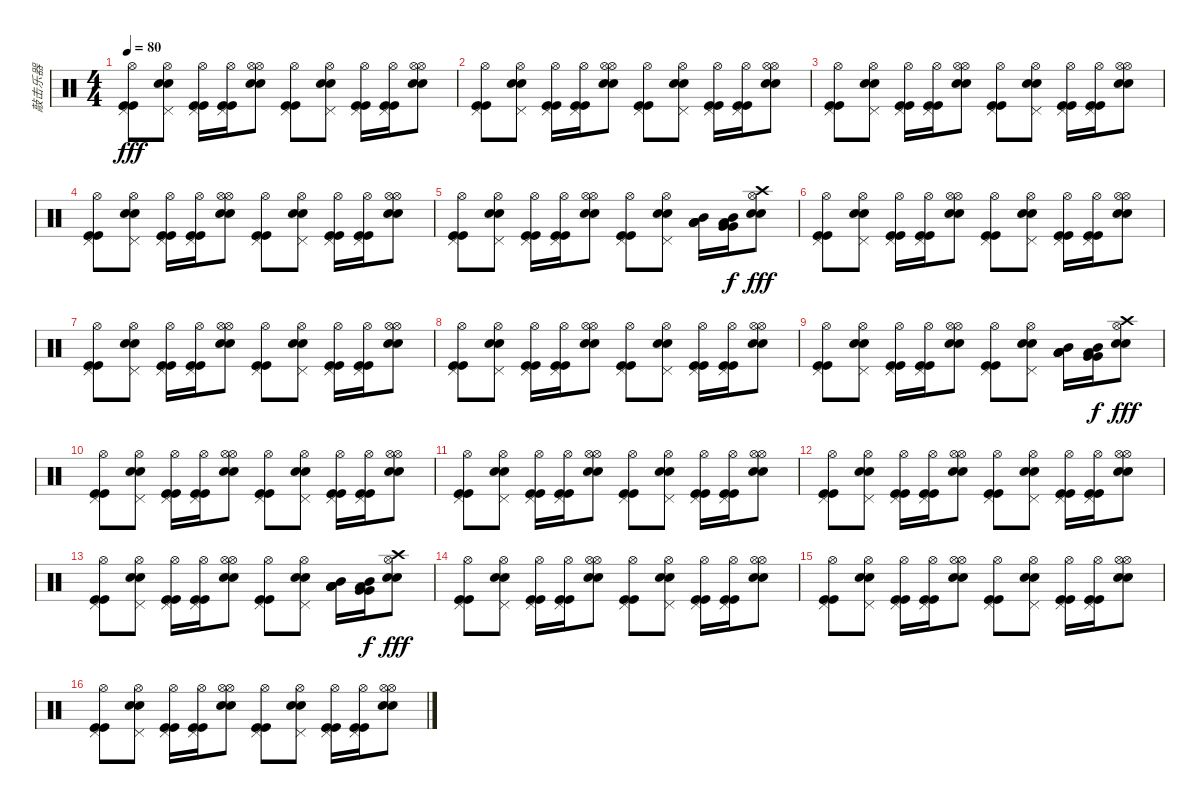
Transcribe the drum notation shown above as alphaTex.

\track ("敲击乐器" "敲击乐器") {instrument percussion}
\staff {score}
\articulation defaults
\ts (4 4)
\tempo 80
\clef neutral
\ks c
("Kick (hit)" "Kick (hit)" "Pedal Hi-Hat (hit)" "Hi-Hat (open)").8{dy fff} ("Electric Snare (hit)" "Electric Snare (hit)" "Pedal Hi-Hat (hit)" "Hi-Hat (open)").8 ("Kick (hit)" "Kick (hit)" "Pedal Hi-Hat (hit)" "Hi-Hat (open)").16 ("Kick (hit)" "Kick (hit)" "Pedal Hi-Hat (hit)" "Hi-Hat (open)").16 ("Electric Snare (hit)" "Electric Snare (hit)" "Hi-Hat (open)" "Hi-Hat (open)").8 ("Kick (hit)" "Kick (hit)" "Pedal Hi-Hat (hit)" "Hi-Hat (open)").8 ("Electric Snare (hit)" "Electric Snare (hit)" "Pedal Hi-Hat (hit)" "Hi-Hat (open)").8 ("Kick (hit)" "Kick (hit)" "Pedal Hi-Hat (hit)" "Hi-Hat (open)").16 ("Kick (hit)" "Kick (hit)" "Pedal Hi-Hat (hit)" "Hi-Hat (open)").16 ("Electric Snare (hit)" "Electric Snare (hit)" "Hi-Hat (open)" "Hi-Hat (open)").8 |
("Kick (hit)" "Kick (hit)" "Pedal Hi-Hat (hit)" "Hi-Hat (open)").8 ("Electric Snare (hit)" "Electric Snare (hit)" "Pedal Hi-Hat (hit)" "Hi-Hat (open)").8 ("Kick (hit)" "Kick (hit)" "Pedal Hi-Hat (hit)" "Hi-Hat (open)").16 ("Kick (hit)" "Kick (hit)" "Pedal Hi-Hat (hit)" "Hi-Hat (open)").16 ("Electric Snare (hit)" "Electric Snare (hit)" "Hi-Hat (open)" "Hi-Hat (open)").8 ("Kick (hit)" "Kick (hit)" "Pedal Hi-Hat (hit)" "Hi-Hat (open)").8 ("Electric Snare (hit)" "Electric Snare (hit)" "Pedal Hi-Hat (hit)" "Hi-Hat (open)").8 ("Kick (hit)" "Kick (hit)" "Pedal Hi-Hat (hit)" "Hi-Hat (open)").16 ("Kick (hit)" "Kick (hit)" "Pedal Hi-Hat (hit)" "Hi-Hat (open)").16 ("Electric Snare (hit)" "Electric Snare (hit)" "Hi-Hat (open)" "Hi-Hat (open)").8 |
("Kick (hit)" "Kick (hit)" "Pedal Hi-Hat (hit)" "Hi-Hat (open)").8 ("Electric Snare (hit)" "Electric Snare (hit)" "Pedal Hi-Hat (hit)" "Hi-Hat (open)").8 ("Kick (hit)" "Kick (hit)" "Pedal Hi-Hat (hit)" "Hi-Hat (open)").16 ("Kick (hit)" "Kick (hit)" "Pedal Hi-Hat (hit)" "Hi-Hat (open)").16 ("Electric Snare (hit)" "Electric Snare (hit)" "Hi-Hat (open)" "Hi-Hat (open)").8 ("Kick (hit)" "Kick (hit)" "Pedal Hi-Hat (hit)" "Hi-Hat (open)").8 ("Electric Snare (hit)" "Electric Snare (hit)" "Pedal Hi-Hat (hit)" "Hi-Hat (open)").8 ("Kick (hit)" "Kick (hit)" "Pedal Hi-Hat (hit)" "Hi-Hat (open)").16 ("Kick (hit)" "Kick (hit)" "Pedal Hi-Hat (hit)" "Hi-Hat (open)").16 ("Electric Snare (hit)" "Electric Snare (hit)" "Hi-Hat (open)" "Hi-Hat (open)").8 |
("Kick (hit)" "Kick (hit)" "Pedal Hi-Hat (hit)" "Hi-Hat (open)").8 ("Electric Snare (hit)" "Electric Snare (hit)" "Pedal Hi-Hat (hit)" "Hi-Hat (open)").8 ("Kick (hit)" "Kick (hit)" "Pedal Hi-Hat (hit)" "Hi-Hat (open)").16 ("Kick (hit)" "Kick (hit)" "Pedal Hi-Hat (hit)" "Hi-Hat (open)").16 ("Electric Snare (hit)" "Electric Snare (hit)" "Hi-Hat (open)" "Hi-Hat (open)").8 ("Kick (hit)" "Kick (hit)" "Pedal Hi-Hat (hit)" "Hi-Hat (open)").8 ("Electric Snare (hit)" "Electric Snare (hit)" "Pedal Hi-Hat (hit)" "Hi-Hat (open)").8 ("Kick (hit)" "Kick (hit)" "Pedal Hi-Hat (hit)" "Hi-Hat (open)").16 ("Kick (hit)" "Kick (hit)" "Pedal Hi-Hat (hit)" "Hi-Hat (open)").16 ("Electric Snare (hit)" "Electric Snare (hit)" "Hi-Hat (open)" "Hi-Hat (open)").8 |
("Kick (hit)" "Kick (hit)" "Pedal Hi-Hat (hit)" "Hi-Hat (open)").8 ("Electric Snare (hit)" "Electric Snare (hit)" "Pedal Hi-Hat (hit)" "Hi-Hat (open)").8 ("Kick (hit)" "Kick (hit)" "Pedal Hi-Hat (hit)" "Hi-Hat (open)").16 ("Kick (hit)" "Kick (hit)" "Pedal Hi-Hat (hit)" "Hi-Hat (open)").16 ("Electric Snare (hit)" "Electric Snare (hit)" "Hi-Hat (open)" "Hi-Hat (open)").8 ("Kick (hit)" "Kick (hit)" "Pedal Hi-Hat (hit)" "Hi-Hat (open)").8 ("Electric Snare (hit)" "Electric Snare (hit)" "Pedal Hi-Hat (hit)" "Hi-Hat (open)").8 ("Low Floor Tom (hit)" "Low Floor Tom (hit)" "Mid Tom (hit)" "Low Floor Tom (hit)").16 ("Very Low Tom (hit)" "Very Low Tom (hit)" "Mid Tom (hit)" "Low Floor Tom (hit)").16{dy f} ("Electric Snare (hit)" "Electric Snare (hit)" "Hi-Hat (open)" "Crash high (hit)").8{dy fff} |
("Kick (hit)" "Kick (hit)" "Pedal Hi-Hat (hit)" "Hi-Hat (open)").8 ("Electric Snare (hit)" "Electric Snare (hit)" "Pedal Hi-Hat (hit)" "Hi-Hat (open)").8 ("Kick (hit)" "Kick (hit)" "Pedal Hi-Hat (hit)" "Hi-Hat (open)").16 ("Kick (hit)" "Kick (hit)" "Pedal Hi-Hat (hit)" "Hi-Hat (open)").16 ("Electric Snare (hit)" "Electric Snare (hit)" "Hi-Hat (open)" "Hi-Hat (open)").8 ("Kick (hit)" "Kick (hit)" "Pedal Hi-Hat (hit)" "Hi-Hat (open)").8 ("Electric Snare (hit)" "Electric Snare (hit)" "Pedal Hi-Hat (hit)" "Hi-Hat (open)").8 ("Kick (hit)" "Kick (hit)" "Pedal Hi-Hat (hit)" "Hi-Hat (open)").16 ("Kick (hit)" "Kick (hit)" "Pedal Hi-Hat (hit)" "Hi-Hat (open)").16 ("Electric Snare (hit)" "Electric Snare (hit)" "Hi-Hat (open)" "Hi-Hat (open)").8 |
("Kick (hit)" "Kick (hit)" "Pedal Hi-Hat (hit)" "Hi-Hat (open)").8 ("Electric Snare (hit)" "Electric Snare (hit)" "Pedal Hi-Hat (hit)" "Hi-Hat (open)").8 ("Kick (hit)" "Kick (hit)" "Pedal Hi-Hat (hit)" "Hi-Hat (open)").16 ("Kick (hit)" "Kick (hit)" "Pedal Hi-Hat (hit)" "Hi-Hat (open)").16 ("Electric Snare (hit)" "Electric Snare (hit)" "Hi-Hat (open)" "Hi-Hat (open)").8 ("Kick (hit)" "Kick (hit)" "Pedal Hi-Hat (hit)" "Hi-Hat (open)").8 ("Electric Snare (hit)" "Electric Snare (hit)" "Pedal Hi-Hat (hit)" "Hi-Hat (open)").8 ("Kick (hit)" "Kick (hit)" "Pedal Hi-Hat (hit)" "Hi-Hat (open)").16 ("Kick (hit)" "Kick (hit)" "Pedal Hi-Hat (hit)" "Hi-Hat (open)").16 ("Electric Snare (hit)" "Electric Snare (hit)" "Hi-Hat (open)" "Hi-Hat (open)").8 |
("Kick (hit)" "Kick (hit)" "Pedal Hi-Hat (hit)" "Hi-Hat (open)").8 ("Electric Snare (hit)" "Electric Snare (hit)" "Pedal Hi-Hat (hit)" "Hi-Hat (open)").8 ("Kick (hit)" "Kick (hit)" "Pedal Hi-Hat (hit)" "Hi-Hat (open)").16 ("Kick (hit)" "Kick (hit)" "Pedal Hi-Hat (hit)" "Hi-Hat (open)").16 ("Electric Snare (hit)" "Electric Snare (hit)" "Hi-Hat (open)" "Hi-Hat (open)").8 ("Kick (hit)" "Kick (hit)" "Pedal Hi-Hat (hit)" "Hi-Hat (open)").8 ("Electric Snare (hit)" "Electric Snare (hit)" "Pedal Hi-Hat (hit)" "Hi-Hat (open)").8 ("Kick (hit)" "Kick (hit)" "Pedal Hi-Hat (hit)" "Hi-Hat (open)").16 ("Kick (hit)" "Kick (hit)" "Pedal Hi-Hat (hit)" "Hi-Hat (open)").16 ("Electric Snare (hit)" "Electric Snare (hit)" "Hi-Hat (open)" "Hi-Hat (open)").8 |
("Kick (hit)" "Kick (hit)" "Pedal Hi-Hat (hit)" "Hi-Hat (open)").8 ("Electric Snare (hit)" "Electric Snare (hit)" "Pedal Hi-Hat (hit)" "Hi-Hat (open)").8 ("Kick (hit)" "Kick (hit)" "Pedal Hi-Hat (hit)" "Hi-Hat (open)").16 ("Kick (hit)" "Kick (hit)" "Pedal Hi-Hat (hit)" "Hi-Hat (open)").16 ("Electric Snare (hit)" "Electric Snare (hit)" "Hi-Hat (open)" "Hi-Hat (open)").8 ("Kick (hit)" "Kick (hit)" "Pedal Hi-Hat (hit)" "Hi-Hat (open)").8 ("Electric Snare (hit)" "Electric Snare (hit)" "Pedal Hi-Hat (hit)" "Hi-Hat (open)").8 ("Low Floor Tom (hit)" "Low Floor Tom (hit)" "Mid Tom (hit)" "Low Floor Tom (hit)").16 ("Very Low Tom (hit)" "Very Low Tom (hit)" "Mid Tom (hit)" "Low Floor Tom (hit)").16{dy f} ("Electric Snare (hit)" "Electric Snare (hit)" "Hi-Hat (open)" "Crash high (hit)").8{dy fff} |
("Kick (hit)" "Kick (hit)" "Pedal Hi-Hat (hit)" "Hi-Hat (open)").8 ("Electric Snare (hit)" "Electric Snare (hit)" "Pedal Hi-Hat (hit)" "Hi-Hat (open)").8 ("Kick (hit)" "Kick (hit)" "Pedal Hi-Hat (hit)" "Hi-Hat (open)").16 ("Kick (hit)" "Kick (hit)" "Pedal Hi-Hat (hit)" "Hi-Hat (open)").16 ("Electric Snare (hit)" "Electric Snare (hit)" "Hi-Hat (open)" "Hi-Hat (open)").8 ("Kick (hit)" "Kick (hit)" "Pedal Hi-Hat (hit)" "Hi-Hat (open)").8 ("Electric Snare (hit)" "Electric Snare (hit)" "Pedal Hi-Hat (hit)" "Hi-Hat (open)").8 ("Kick (hit)" "Kick (hit)" "Pedal Hi-Hat (hit)" "Hi-Hat (open)").16 ("Kick (hit)" "Kick (hit)" "Pedal Hi-Hat (hit)" "Hi-Hat (open)").16 ("Electric Snare (hit)" "Electric Snare (hit)" "Hi-Hat (open)" "Hi-Hat (open)").8 |
("Kick (hit)" "Kick (hit)" "Pedal Hi-Hat (hit)" "Hi-Hat (open)").8 ("Electric Snare (hit)" "Electric Snare (hit)" "Pedal Hi-Hat (hit)" "Hi-Hat (open)").8 ("Kick (hit)" "Kick (hit)" "Pedal Hi-Hat (hit)" "Hi-Hat (open)").16 ("Kick (hit)" "Kick (hit)" "Pedal Hi-Hat (hit)" "Hi-Hat (open)").16 ("Electric Snare (hit)" "Electric Snare (hit)" "Hi-Hat (open)" "Hi-Hat (open)").8 ("Kick (hit)" "Kick (hit)" "Pedal Hi-Hat (hit)" "Hi-Hat (open)").8 ("Electric Snare (hit)" "Electric Snare (hit)" "Pedal Hi-Hat (hit)" "Hi-Hat (open)").8 ("Kick (hit)" "Kick (hit)" "Pedal Hi-Hat (hit)" "Hi-Hat (open)").16 ("Kick (hit)" "Kick (hit)" "Pedal Hi-Hat (hit)" "Hi-Hat (open)").16 ("Electric Snare (hit)" "Electric Snare (hit)" "Hi-Hat (open)" "Hi-Hat (open)").8 |
("Kick (hit)" "Kick (hit)" "Pedal Hi-Hat (hit)" "Hi-Hat (open)").8 ("Electric Snare (hit)" "Electric Snare (hit)" "Pedal Hi-Hat (hit)" "Hi-Hat (open)").8 ("Kick (hit)" "Kick (hit)" "Pedal Hi-Hat (hit)" "Hi-Hat (open)").16 ("Kick (hit)" "Kick (hit)" "Pedal Hi-Hat (hit)" "Hi-Hat (open)").16 ("Electric Snare (hit)" "Electric Snare (hit)" "Hi-Hat (open)" "Hi-Hat (open)").8 ("Kick (hit)" "Kick (hit)" "Pedal Hi-Hat (hit)" "Hi-Hat (open)").8 ("Electric Snare (hit)" "Electric Snare (hit)" "Pedal Hi-Hat (hit)" "Hi-Hat (open)").8 ("Kick (hit)" "Kick (hit)" "Pedal Hi-Hat (hit)" "Hi-Hat (open)").16 ("Kick (hit)" "Kick (hit)" "Pedal Hi-Hat (hit)" "Hi-Hat (open)").16 ("Electric Snare (hit)" "Electric Snare (hit)" "Hi-Hat (open)" "Hi-Hat (open)").8 |
("Kick (hit)" "Kick (hit)" "Pedal Hi-Hat (hit)" "Hi-Hat (open)").8 ("Electric Snare (hit)" "Electric Snare (hit)" "Pedal Hi-Hat (hit)" "Hi-Hat (open)").8 ("Kick (hit)" "Kick (hit)" "Pedal Hi-Hat (hit)" "Hi-Hat (open)").16 ("Kick (hit)" "Kick (hit)" "Pedal Hi-Hat (hit)" "Hi-Hat (open)").16 ("Electric Snare (hit)" "Electric Snare (hit)" "Hi-Hat (open)" "Hi-Hat (open)").8 ("Kick (hit)" "Kick (hit)" "Pedal Hi-Hat (hit)" "Hi-Hat (open)").8 ("Electric Snare (hit)" "Electric Snare (hit)" "Pedal Hi-Hat (hit)" "Hi-Hat (open)").8 ("Low Floor Tom (hit)" "Low Floor Tom (hit)" "Mid Tom (hit)" "Low Floor Tom (hit)").16 ("Very Low Tom (hit)" "Very Low Tom (hit)" "Mid Tom (hit)" "Low Floor Tom (hit)").16{dy f} ("Electric Snare (hit)" "Electric Snare (hit)" "Hi-Hat (open)" "Crash high (hit)").8{dy fff} |
("Kick (hit)" "Kick (hit)" "Pedal Hi-Hat (hit)" "Hi-Hat (open)").8 ("Electric Snare (hit)" "Electric Snare (hit)" "Pedal Hi-Hat (hit)" "Hi-Hat (open)").8 ("Kick (hit)" "Kick (hit)" "Pedal Hi-Hat (hit)" "Hi-Hat (open)").16 ("Kick (hit)" "Kick (hit)" "Pedal Hi-Hat (hit)" "Hi-Hat (open)").16 ("Electric Snare (hit)" "Electric Snare (hit)" "Hi-Hat (open)" "Hi-Hat (open)").8 ("Kick (hit)" "Kick (hit)" "Pedal Hi-Hat (hit)" "Hi-Hat (open)").8 ("Electric Snare (hit)" "Electric Snare (hit)" "Pedal Hi-Hat (hit)" "Hi-Hat (open)").8 ("Kick (hit)" "Kick (hit)" "Pedal Hi-Hat (hit)" "Hi-Hat (open)").16 ("Kick (hit)" "Kick (hit)" "Pedal Hi-Hat (hit)" "Hi-Hat (open)").16 ("Electric Snare (hit)" "Electric Snare (hit)" "Hi-Hat (open)" "Hi-Hat (open)").8 |
("Kick (hit)" "Kick (hit)" "Pedal Hi-Hat (hit)" "Hi-Hat (open)").8 ("Electric Snare (hit)" "Electric Snare (hit)" "Pedal Hi-Hat (hit)" "Hi-Hat (open)").8 ("Kick (hit)" "Kick (hit)" "Pedal Hi-Hat (hit)" "Hi-Hat (open)").16 ("Kick (hit)" "Kick (hit)" "Pedal Hi-Hat (hit)" "Hi-Hat (open)").16 ("Electric Snare (hit)" "Electric Snare (hit)" "Hi-Hat (open)" "Hi-Hat (open)").8 ("Kick (hit)" "Kick (hit)" "Pedal Hi-Hat (hit)" "Hi-Hat (open)").8 ("Electric Snare (hit)" "Electric Snare (hit)" "Pedal Hi-Hat (hit)" "Hi-Hat (open)").8 ("Kick (hit)" "Kick (hit)" "Pedal Hi-Hat (hit)" "Hi-Hat (open)").16 ("Kick (hit)" "Kick (hit)" "Pedal Hi-Hat (hit)" "Hi-Hat (open)").16 ("Electric Snare (hit)" "Electric Snare (hit)" "Hi-Hat (open)" "Hi-Hat (open)").8 |
("Kick (hit)" "Kick (hit)" "Pedal Hi-Hat (hit)" "Hi-Hat (open)").8 ("Electric Snare (hit)" "Electric Snare (hit)" "Pedal Hi-Hat (hit)" "Hi-Hat (open)").8 ("Kick (hit)" "Kick (hit)" "Pedal Hi-Hat (hit)" "Hi-Hat (open)").16 ("Kick (hit)" "Kick (hit)" "Pedal Hi-Hat (hit)" "Hi-Hat (open)").16 ("Electric Snare (hit)" "Electric Snare (hit)" "Hi-Hat (open)" "Hi-Hat (open)").8 ("Kick (hit)" "Kick (hit)" "Pedal Hi-Hat (hit)" "Hi-Hat (open)").8 ("Electric Snare (hit)" "Electric Snare (hit)" "Pedal Hi-Hat (hit)" "Hi-Hat (open)").8 ("Kick (hit)" "Kick (hit)" "Pedal Hi-Hat (hit)" "Hi-Hat (open)").16 ("Kick (hit)" "Kick (hit)" "Pedal Hi-Hat (hit)" "Hi-Hat (open)").16 ("Electric Snare (hit)" "Electric Snare (hit)" "Hi-Hat (open)" "Hi-Hat (open)").8
